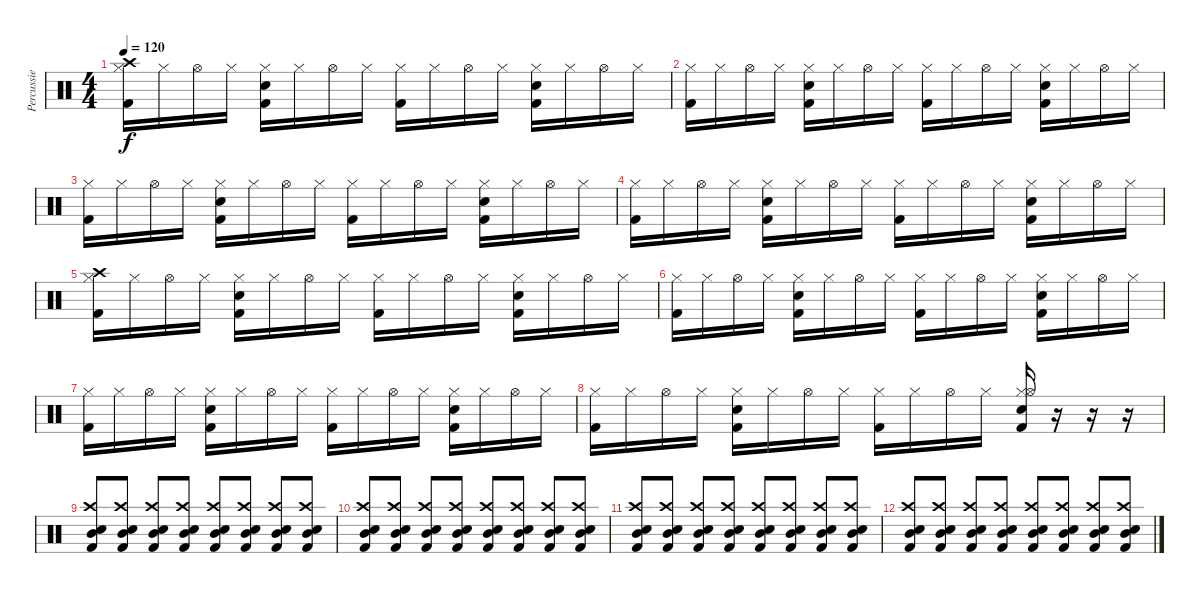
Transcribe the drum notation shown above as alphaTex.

\track ("Percussie" "Percussie") {instrument percussion}
\staff {score}
\articulation defaults
\ts (4 4)
\tempo 120
\clef neutral
\ks c
("Kick (hit) 2" "Hi-Hat (closed)" "Crash high (hit)").16{dy f} "Hi-Hat (closed)".16 "Hi-Hat (open)".16 "Hi-Hat (closed)".16 ("Kick (hit) 2" "Hi-Hat (closed)" "Snare (hit) 2").16 "Hi-Hat (closed)".16 "Hi-Hat (open)".16 "Hi-Hat (closed)".16 ("Kick (hit) 2" "Hi-Hat (closed)").16 "Hi-Hat (closed)".16 "Hi-Hat (open)".16 "Hi-Hat (closed)".16 ("Kick (hit) 2" "Hi-Hat (closed)" "Snare (hit) 2").16 "Hi-Hat (closed)".16 "Hi-Hat (open)".16 "Hi-Hat (closed)".16 |
("Kick (hit) 2" "Hi-Hat (closed)").16 "Hi-Hat (closed)".16 "Hi-Hat (open)".16 "Hi-Hat (closed)".16 ("Kick (hit) 2" "Hi-Hat (closed)" "Snare (hit) 2").16 "Hi-Hat (closed)".16 "Hi-Hat (open)".16 "Hi-Hat (closed)".16 ("Kick (hit) 2" "Hi-Hat (closed)").16 "Hi-Hat (closed)".16 "Hi-Hat (open)".16 "Hi-Hat (closed)".16 ("Kick (hit) 2" "Hi-Hat (closed)" "Snare (hit) 2").16 "Hi-Hat (closed)".16 "Hi-Hat (open)".16 "Hi-Hat (closed)".16 |
("Kick (hit) 2" "Hi-Hat (closed)").16 "Hi-Hat (closed)".16 "Hi-Hat (open)".16 "Hi-Hat (closed)".16 ("Kick (hit) 2" "Hi-Hat (closed)" "Snare (hit) 2").16 "Hi-Hat (closed)".16 "Hi-Hat (open)".16 "Hi-Hat (closed)".16 ("Kick (hit) 2" "Hi-Hat (closed)").16 "Hi-Hat (closed)".16 "Hi-Hat (open)".16 "Hi-Hat (closed)".16 ("Kick (hit) 2" "Hi-Hat (closed)" "Snare (hit) 2").16 "Hi-Hat (closed)".16 "Hi-Hat (open)".16 "Hi-Hat (closed)".16 |
("Kick (hit) 2" "Hi-Hat (closed)").16 "Hi-Hat (closed)".16 "Hi-Hat (open)".16 "Hi-Hat (closed)".16 ("Kick (hit) 2" "Hi-Hat (closed)" "Snare (hit) 2").16 "Hi-Hat (closed)".16 "Hi-Hat (open)".16 "Hi-Hat (closed)".16 ("Kick (hit) 2" "Hi-Hat (closed)").16 "Hi-Hat (closed)".16 "Hi-Hat (open)".16 "Hi-Hat (closed)".16 ("Kick (hit) 2" "Hi-Hat (closed)" "Snare (hit) 2").16 "Hi-Hat (closed)".16 "Hi-Hat (open)".16 "Hi-Hat (closed)".16 |
("Kick (hit) 2" "Hi-Hat (closed)" "Crash high (hit)").16 "Hi-Hat (closed)".16 "Hi-Hat (open)".16 "Hi-Hat (closed)".16 ("Kick (hit) 2" "Hi-Hat (closed)" "Snare (hit) 2").16 "Hi-Hat (closed)".16 "Hi-Hat (open)".16 "Hi-Hat (closed)".16 ("Kick (hit) 2" "Hi-Hat (closed)").16 "Hi-Hat (closed)".16 "Hi-Hat (open)".16 "Hi-Hat (closed)".16 ("Kick (hit) 2" "Hi-Hat (closed)" "Snare (hit) 2").16 "Hi-Hat (closed)".16 "Hi-Hat (open)".16 "Hi-Hat (closed)".16 |
("Kick (hit) 2" "Hi-Hat (closed)").16 "Hi-Hat (closed)".16 "Hi-Hat (open)".16 "Hi-Hat (closed)".16 ("Kick (hit) 2" "Hi-Hat (closed)" "Snare (hit) 2").16 "Hi-Hat (closed)".16 "Hi-Hat (open)".16 "Hi-Hat (closed)".16 ("Kick (hit) 2" "Hi-Hat (closed)").16 "Hi-Hat (closed)".16 "Hi-Hat (open)".16 "Hi-Hat (closed)".16 ("Kick (hit) 2" "Hi-Hat (closed)" "Snare (hit) 2").16 "Hi-Hat (closed)".16 "Hi-Hat (open)".16 "Hi-Hat (closed)".16 |
("Kick (hit) 2" "Hi-Hat (closed)").16 "Hi-Hat (closed)".16 "Hi-Hat (open)".16 "Hi-Hat (closed)".16 ("Kick (hit) 2" "Hi-Hat (closed)" "Snare (hit) 2").16 "Hi-Hat (closed)".16 "Hi-Hat (open)".16 "Hi-Hat (closed)".16 ("Kick (hit) 2" "Hi-Hat (closed)").16 "Hi-Hat (closed)".16 "Hi-Hat (open)".16 "Hi-Hat (closed)".16 ("Kick (hit) 2" "Hi-Hat (closed)" "Snare (hit) 2").16 "Hi-Hat (closed)".16 "Hi-Hat (open)".16 "Hi-Hat (closed)".16 |
("Kick (hit) 2" "Hi-Hat (closed)").16 "Hi-Hat (closed)".16 "Hi-Hat (open)".16 "Hi-Hat (closed)".16 ("Kick (hit) 2" "Hi-Hat (closed)" "Snare (hit) 2").16 "Hi-Hat (closed)".16 "Hi-Hat (open)".16 "Hi-Hat (closed)".16 ("Kick (hit) 2" "Hi-Hat (closed)").16 "Hi-Hat (closed)".16 "Hi-Hat (open)".16 "Hi-Hat (closed)".16 ("Kick (hit) 2" "Hi-Hat (closed)" "Snare (hit) 2" "Hi-Hat (open)").16 r.16 r.16 r.16 |
("Kick (hit) 2" "Electric Snare (hit)" "Mid Tom (hit)" "Crash high (hit)").8 ("Kick (hit) 2" "Electric Snare (hit)" "Mid Tom (hit)" "Crash high (hit)").8 ("Kick (hit) 2" "Electric Snare (hit)" "Mid Tom (hit)" "Crash high (hit)").8 ("Kick (hit) 2" "Electric Snare (hit)" "Mid Tom (hit)" "Crash high (hit)").8 ("Kick (hit) 2" "Electric Snare (hit)" "Mid Tom (hit)" "Crash high (hit)").8 ("Kick (hit) 2" "Electric Snare (hit)" "Mid Tom (hit)" "Crash high (hit)").8 ("Kick (hit) 2" "Electric Snare (hit)" "Mid Tom (hit)" "Crash high (hit)").8 ("Kick (hit) 2" "Electric Snare (hit)" "Mid Tom (hit)" "Crash high (hit)").8 |
("Kick (hit) 2" "Electric Snare (hit)" "Mid Tom (hit)" "Crash high (hit)").8 ("Kick (hit) 2" "Electric Snare (hit)" "Mid Tom (hit)" "Crash high (hit)").8 ("Kick (hit) 2" "Electric Snare (hit)" "Mid Tom (hit)" "Crash high (hit)").8 ("Kick (hit) 2" "Electric Snare (hit)" "Mid Tom (hit)" "Crash high (hit)").8 ("Kick (hit) 2" "Electric Snare (hit)" "Mid Tom (hit)" "Crash high (hit)").8 ("Kick (hit) 2" "Electric Snare (hit)" "Mid Tom (hit)" "Crash high (hit)").8 ("Kick (hit) 2" "Electric Snare (hit)" "Mid Tom (hit)" "Crash high (hit)").8 ("Kick (hit) 2" "Electric Snare (hit)" "Mid Tom (hit)" "Crash high (hit)").8 |
("Kick (hit) 2" "Electric Snare (hit)" "Mid Tom (hit)" "Crash high (hit)").8 ("Kick (hit) 2" "Electric Snare (hit)" "Mid Tom (hit)" "Crash high (hit)").8 ("Kick (hit) 2" "Electric Snare (hit)" "Mid Tom (hit)" "Crash high (hit)").8 ("Kick (hit) 2" "Electric Snare (hit)" "Mid Tom (hit)" "Crash high (hit)").8 ("Kick (hit) 2" "Electric Snare (hit)" "Mid Tom (hit)" "Crash high (hit)").8 ("Kick (hit) 2" "Electric Snare (hit)" "Mid Tom (hit)" "Crash high (hit)").8 ("Kick (hit) 2" "Electric Snare (hit)" "Mid Tom (hit)" "Crash high (hit)").8 ("Kick (hit) 2" "Electric Snare (hit)" "Mid Tom (hit)" "Crash high (hit)").8 |
("Kick (hit) 2" "Electric Snare (hit)" "Mid Tom (hit)" "Crash high (hit)").8 ("Kick (hit) 2" "Electric Snare (hit)" "Mid Tom (hit)" "Crash high (hit)").8 ("Kick (hit) 2" "Electric Snare (hit)" "Mid Tom (hit)" "Crash high (hit)").8 ("Kick (hit) 2" "Electric Snare (hit)" "Mid Tom (hit)" "Crash high (hit)").8 ("Kick (hit) 2" "Electric Snare (hit)" "Mid Tom (hit)" "Crash high (hit)").8 ("Kick (hit) 2" "Electric Snare (hit)" "Mid Tom (hit)" "Crash high (hit)").8 ("Kick (hit) 2" "Electric Snare (hit)" "Mid Tom (hit)" "Crash high (hit)").8 ("Kick (hit) 2" "Electric Snare (hit)" "Mid Tom (hit)" "Crash high (hit)").8
